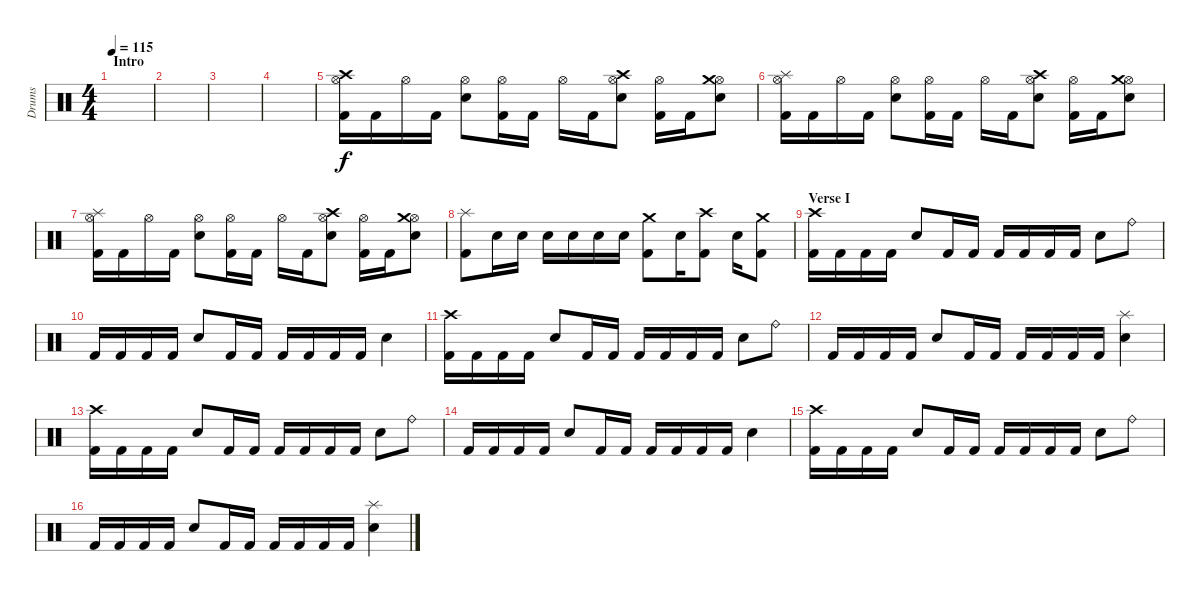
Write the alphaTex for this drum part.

\track ("Drums" "Drums") {instrument percussion}
\staff {score}
\articulation defaults
\ts (4 4)
\section ("" "Intro")
\tempo 115
\clef neutral
\ks c
|
|
|
|
("Kick (hit) 2" "Hi-Hat (open)" "Crash high (hit)").16 "Kick (hit) 2".16 "Hi-Hat (open)".16 "Kick (hit) 2".16 ("Electric Snare (hit)" "Hi-Hat (open)").8 ("Kick (hit) 2" "Hi-Hat (open)").16 "Kick (hit) 2".16 "Hi-Hat (open)".16 "Kick (hit) 2".16 ("Electric Snare (hit)" "Hi-Hat (open)" "Crash high (hit)").8 ("Kick (hit) 2" "Hi-Hat (open)").16 "Kick (hit) 2".16 ("Electric Snare (hit)" "Hi-Hat (open)" "Crash medium (hit)").8 |
("Kick (hit) 2" "Hi-Hat (open)" "Splash (hit)").16 "Kick (hit) 2".16 "Hi-Hat (open)".16 "Kick (hit) 2".16 ("Electric Snare (hit)" "Hi-Hat (open)").8 ("Kick (hit) 2" "Hi-Hat (open)").16 "Kick (hit) 2".16 "Hi-Hat (open)".16 "Kick (hit) 2".16 ("Electric Snare (hit)" "Hi-Hat (open)" "Crash high (hit)").8 ("Kick (hit) 2" "Hi-Hat (open)").16 "Kick (hit) 2".16 ("Electric Snare (hit)" "Hi-Hat (open)" "Crash medium (hit)").8 |
("Kick (hit) 2" "Hi-Hat (open)" "Splash (hit)").16 "Kick (hit) 2".16 "Hi-Hat (open)".16 "Kick (hit) 2".16 ("Electric Snare (hit)" "Hi-Hat (open)").8 ("Kick (hit) 2" "Hi-Hat (open)").16 "Kick (hit) 2".16 "Hi-Hat (open)".16 "Kick (hit) 2".16 ("Electric Snare (hit)" "Hi-Hat (open)" "Crash high (hit)").8 ("Kick (hit) 2" "Hi-Hat (open)").16 "Kick (hit) 2".16 ("Electric Snare (hit)" "Hi-Hat (open)" "Crash medium (hit)").8 |
("Kick (hit) 2" "Splash (hit)").8 "Electric Snare (hit)".16 "Electric Snare (hit)".16 "Electric Snare (hit)".16 "Electric Snare (hit)".16 "Electric Snare (hit)".16 "Electric Snare (hit)".16 ("Kick (hit) 2" "Crash medium (hit)").8 "Electric Snare (hit)".16 ("Kick (hit) 2" "Crash high (hit)").8 "Electric Snare (hit)".16 ("Kick (hit) 2" "Crash medium (hit)").8 |
\section ("" "Verse I")
("Kick (hit) 2" "Crash high (hit)").16 "Kick (hit) 2".16 "Kick (hit) 2".16 "Kick (hit) 2".16 "Electric Snare (hit)".8 "Kick (hit) 2".16 "Kick (hit) 2".16 "Kick (hit) 2".16 "Kick (hit) 2".16 "Kick (hit) 2".16 "Kick (hit) 2".16 "Electric Snare (hit)".8 "Ride (bell)".8 |
"Kick (hit) 2".16 "Kick (hit) 2".16 "Kick (hit) 2".16 "Kick (hit) 2".16 "Electric Snare (hit)".8 "Kick (hit) 2".16 "Kick (hit) 2".16 "Kick (hit) 2".16 "Kick (hit) 2".16 "Kick (hit) 2".16 "Kick (hit) 2".16 "Electric Snare (hit)".4 |
("Kick (hit) 2" "Crash high (hit)").16 "Kick (hit) 2".16 "Kick (hit) 2".16 "Kick (hit) 2".16 "Electric Snare (hit)".8 "Kick (hit) 2".16 "Kick (hit) 2".16 "Kick (hit) 2".16 "Kick (hit) 2".16 "Kick (hit) 2".16 "Kick (hit) 2".16 "Electric Snare (hit)".8 "Ride (bell)".8 |
"Kick (hit) 2".16 "Kick (hit) 2".16 "Kick (hit) 2".16 "Kick (hit) 2".16 "Electric Snare (hit)".8 "Kick (hit) 2".16 "Kick (hit) 2".16 "Kick (hit) 2".16 "Kick (hit) 2".16 "Kick (hit) 2".16 "Kick (hit) 2".16 ("Electric Snare (hit)" "Splash (hit)").4 |
("Kick (hit) 2" "Crash high (hit)").16 "Kick (hit) 2".16 "Kick (hit) 2".16 "Kick (hit) 2".16 "Electric Snare (hit)".8 "Kick (hit) 2".16 "Kick (hit) 2".16 "Kick (hit) 2".16 "Kick (hit) 2".16 "Kick (hit) 2".16 "Kick (hit) 2".16 "Electric Snare (hit)".8 "Ride (bell)".8 |
"Kick (hit) 2".16 "Kick (hit) 2".16 "Kick (hit) 2".16 "Kick (hit) 2".16 "Electric Snare (hit)".8 "Kick (hit) 2".16 "Kick (hit) 2".16 "Kick (hit) 2".16 "Kick (hit) 2".16 "Kick (hit) 2".16 "Kick (hit) 2".16 "Electric Snare (hit)".4 |
("Kick (hit) 2" "Crash high (hit)").16 "Kick (hit) 2".16 "Kick (hit) 2".16 "Kick (hit) 2".16 "Electric Snare (hit)".8 "Kick (hit) 2".16 "Kick (hit) 2".16 "Kick (hit) 2".16 "Kick (hit) 2".16 "Kick (hit) 2".16 "Kick (hit) 2".16 "Electric Snare (hit)".8 "Ride (bell)".8 |
"Kick (hit) 2".16 "Kick (hit) 2".16 "Kick (hit) 2".16 "Kick (hit) 2".16 "Electric Snare (hit)".8 "Kick (hit) 2".16 "Kick (hit) 2".16 "Kick (hit) 2".16 "Kick (hit) 2".16 "Kick (hit) 2".16 "Kick (hit) 2".16 ("Electric Snare (hit)" "Splash (hit)").4
